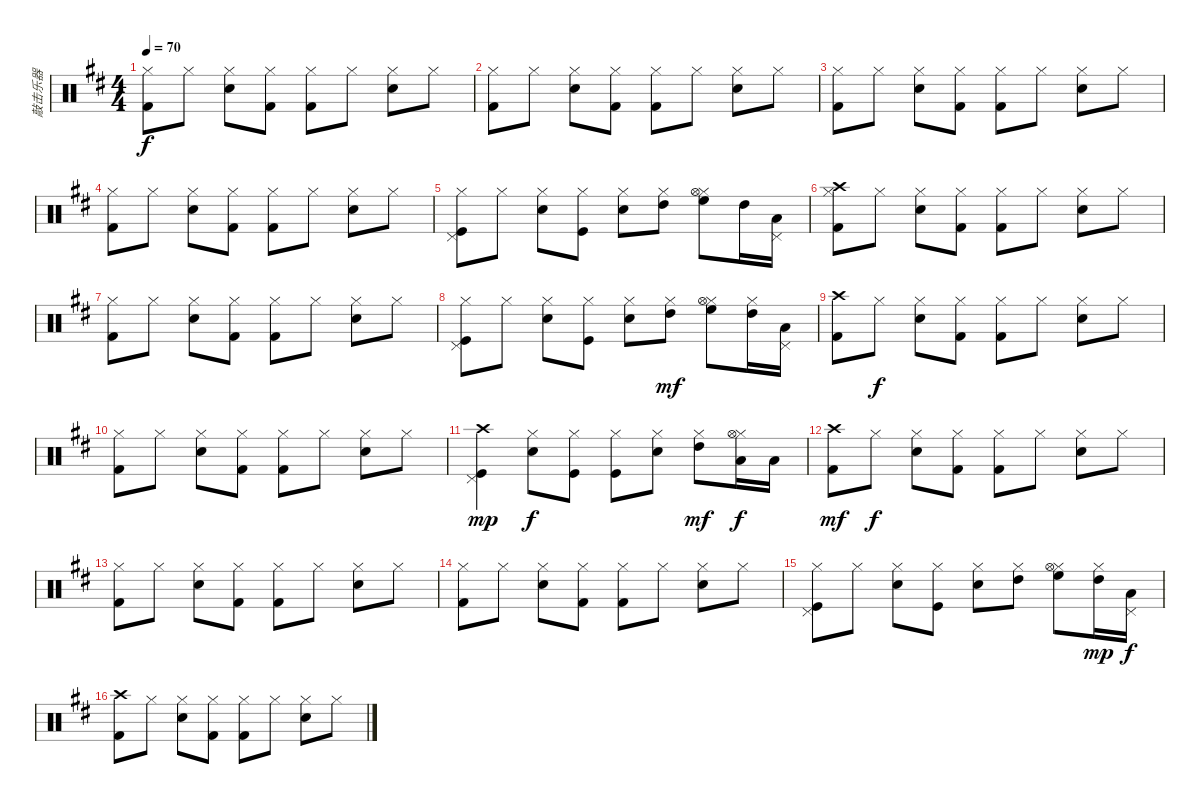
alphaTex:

\track ("敲击乐器" "敲击乐器") {instrument percussion}
\staff {score}
\articulation defaults
\ts (4 4)
\tempo 70
\clef neutral
\ks d
("Hi-Hat (closed)" "Kick (hit) 2").8{dy f} "Hi-Hat (closed)".8 ("Electric Snare (hit)" "Hi-Hat (closed)").8 ("Hi-Hat (closed)" "Kick (hit) 2").8 ("Kick (hit) 2" "Hi-Hat (closed)").8 "Hi-Hat (closed)".8 ("Electric Snare (hit)" "Hi-Hat (closed)").8 "Hi-Hat (closed)".8 |
("Hi-Hat (closed)" "Kick (hit) 2").8 "Hi-Hat (closed)".8 ("Electric Snare (hit)" "Hi-Hat (closed)").8 ("Hi-Hat (closed)" "Kick (hit) 2").8 ("Kick (hit) 2" "Hi-Hat (closed)").8 "Hi-Hat (closed)".8 ("Electric Snare (hit)" "Hi-Hat (closed)").8 "Hi-Hat (closed)".8 |
("Hi-Hat (closed)" "Kick (hit) 2").8 "Hi-Hat (closed)".8 ("Electric Snare (hit)" "Hi-Hat (closed)").8 ("Hi-Hat (closed)" "Kick (hit) 2").8 ("Kick (hit) 2" "Hi-Hat (closed)").8 "Hi-Hat (closed)".8 ("Electric Snare (hit)" "Hi-Hat (closed)").8 "Hi-Hat (closed)".8 |
("Hi-Hat (closed)" "Kick (hit) 2").8 "Hi-Hat (closed)".8 ("Electric Snare (hit)" "Hi-Hat (closed)").8 ("Hi-Hat (closed)" "Kick (hit) 2").8 ("Kick (hit) 2" "Hi-Hat (closed)").8 "Hi-Hat (closed)".8 ("Electric Snare (hit)" "Hi-Hat (closed)").8 "Hi-Hat (closed)".8 |
("Kick (hit)" "Pedal Hi-Hat (hit)" "Hi-Hat (closed)").8 "Hi-Hat (closed)".8 ("Electric Snare (hit)" "Hi-Hat (closed)").8 ("Kick (hit)" "Hi-Hat (closed)").8 ("Hi-Hat (closed)" "Electric Snare (hit)").8 ("Hi-Hat (closed)" "High Tom (hit)").8 ("Hi-Hat (closed)" "Hi-Hat (open)" "High Floor Tom (hit)").8 "High Tom (hit)".16 ("Low Tom (hit)" "Pedal Hi-Hat (hit)").16 |
("Crash high (hit)" "Hi-Hat (closed)" "Kick (hit) 2").8 "Hi-Hat (closed)".8 ("Electric Snare (hit)" "Hi-Hat (closed)").8 ("Hi-Hat (closed)" "Kick (hit) 2").8 ("Kick (hit) 2" "Hi-Hat (closed)").8 "Hi-Hat (closed)".8 ("Electric Snare (hit)" "Hi-Hat (closed)").8 "Hi-Hat (closed)".8 |
("Hi-Hat (closed)" "Kick (hit) 2").8 "Hi-Hat (closed)".8 ("Electric Snare (hit)" "Hi-Hat (closed)").8 ("Hi-Hat (closed)" "Kick (hit) 2").8 ("Kick (hit) 2" "Hi-Hat (closed)").8 "Hi-Hat (closed)".8 ("Electric Snare (hit)" "Hi-Hat (closed)").8 "Hi-Hat (closed)".8 |
("Kick (hit)" "Pedal Hi-Hat (hit)" "Hi-Hat (closed)").8 "Hi-Hat (closed)".8 ("Electric Snare (hit)" "Hi-Hat (closed)").8 ("Kick (hit)" "Hi-Hat (closed)").8 ("Hi-Hat (closed)" "Electric Snare (hit)").8 ("Hi-Hat (closed)" "High Tom (hit)").8{dy mf} ("Hi-Hat (closed)" "Hi-Hat (open)" "High Floor Tom (hit)").8 ("High Tom (hit)" "Hi-Hat (closed)").16 ("Low Tom (hit)" "Pedal Hi-Hat (hit)").16 |
("Kick (hit) 2" "Crash high (hit)").8 "Hi-Hat (closed)".8{dy f} ("Electric Snare (hit)" "Hi-Hat (closed)").8 ("Hi-Hat (closed)" "Kick (hit) 2").8 ("Kick (hit) 2" "Hi-Hat (closed)").8 "Hi-Hat (closed)".8 ("Electric Snare (hit)" "Hi-Hat (closed)").8 "Hi-Hat (closed)".8 |
("Hi-Hat (closed)" "Kick (hit) 2").8 "Hi-Hat (closed)".8 ("Electric Snare (hit)" "Hi-Hat (closed)").8 ("Hi-Hat (closed)" "Kick (hit) 2").8 ("Kick (hit) 2" "Hi-Hat (closed)").8 "Hi-Hat (closed)".8 ("Electric Snare (hit)" "Hi-Hat (closed)").8 "Hi-Hat (closed)".8 |
("Kick (hit)" "Pedal Hi-Hat (hit)" "Crash high (hit)").4{dy mp} ("Snare (hit) 2" "Hi-Hat (closed)").8{dy f} ("Kick (hit)" "Hi-Hat (closed)").8 ("Kick (hit)" "Hi-Hat (closed)").8 ("Hi-Hat (closed)" "Electric Snare (hit)").8 ("Hi-Hat (closed)" "High Tom (hit)").8{dy mf} ("Hi-Hat (closed)" "Hi-Hat (open)" "Low Tom (hit)").16{dy f} "Low Tom (hit)".16 |
("Crash high (hit)" "Kick (hit) 2").8{dy mf} "Hi-Hat (closed)".8{dy f} ("Electric Snare (hit)" "Hi-Hat (closed)").8 ("Hi-Hat (closed)" "Kick (hit) 2").8 ("Kick (hit) 2" "Hi-Hat (closed)").8 "Hi-Hat (closed)".8 ("Electric Snare (hit)" "Hi-Hat (closed)").8 "Hi-Hat (closed)".8 |
("Hi-Hat (closed)" "Kick (hit) 2").8 "Hi-Hat (closed)".8 ("Electric Snare (hit)" "Hi-Hat (closed)").8 ("Hi-Hat (closed)" "Kick (hit) 2").8 ("Kick (hit) 2" "Hi-Hat (closed)").8 "Hi-Hat (closed)".8 ("Electric Snare (hit)" "Hi-Hat (closed)").8 "Hi-Hat (closed)".8 |
("Hi-Hat (closed)" "Kick (hit) 2").8 "Hi-Hat (closed)".8 ("Electric Snare (hit)" "Hi-Hat (closed)").8 ("Hi-Hat (closed)" "Kick (hit) 2").8 ("Kick (hit) 2" "Hi-Hat (closed)").8 "Hi-Hat (closed)".8 ("Electric Snare (hit)" "Hi-Hat (closed)").8 "Hi-Hat (closed)".8 |
("Kick (hit)" "Pedal Hi-Hat (hit)" "Hi-Hat (closed)").8 "Hi-Hat (closed)".8 ("Electric Snare (hit)" "Hi-Hat (closed)").8 ("Kick (hit)" "Hi-Hat (closed)").8 ("Hi-Hat (closed)" "Electric Snare (hit)").8 ("Hi-Hat (closed)" "High Tom (hit)").8 ("Hi-Hat (closed)" "Hi-Hat (open)" "High Floor Tom (hit)").8 ("High Tom (hit)" "Hi-Hat (closed)").16{dy mp} ("Low Tom (hit)" "Pedal Hi-Hat (hit)").16{dy f} |
("Crash high (hit)" "Kick (hit) 2").8 "Hi-Hat (closed)".8 ("Electric Snare (hit)" "Hi-Hat (closed)").8 ("Hi-Hat (closed)" "Kick (hit) 2").8 ("Kick (hit) 2" "Hi-Hat (closed)").8 "Hi-Hat (closed)".8 ("Electric Snare (hit)" "Hi-Hat (closed)").8 "Hi-Hat (closed)".8
